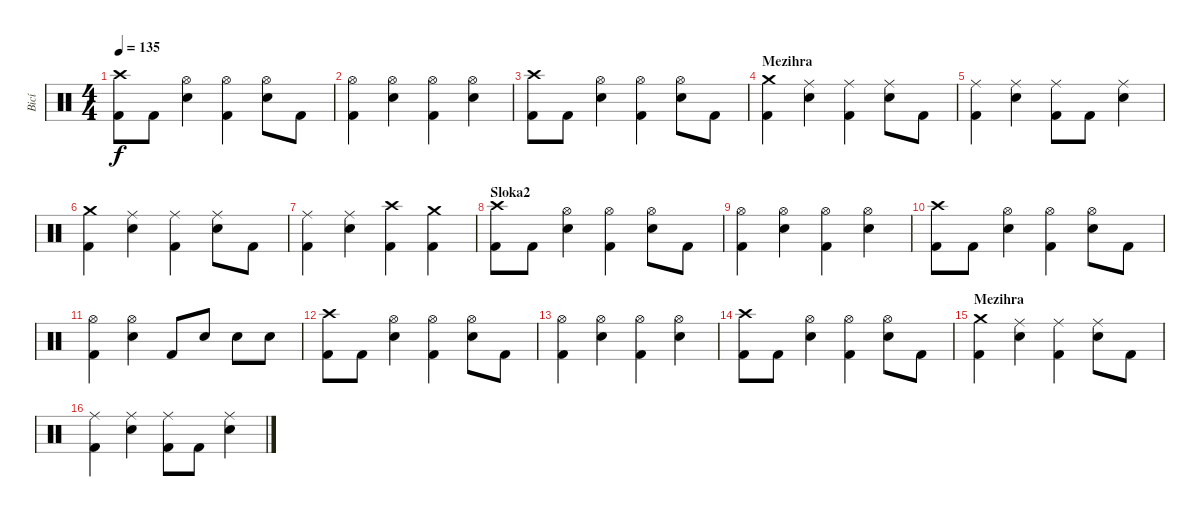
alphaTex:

\track ("Bicí" "Bicí") {instrument percussion}
\staff {score}
\articulation defaults
\ts (4 4)
\tempo 135
\clef neutral
\ks c
("Crash high (hit)" "Kick (hit) 2").8{dy f} "Kick (hit) 2".8 ("Hi-Hat (open)" "Snare (hit) 2").4 ("Hi-Hat (open)" "Kick (hit) 2").4 ("Hi-Hat (open)" "Snare (hit) 2").8 "Kick (hit) 2".8 |
("Hi-Hat (open)" "Kick (hit) 2").4 ("Hi-Hat (open)" "Snare (hit) 2").4 ("Hi-Hat (open)" "Kick (hit) 2").4 ("Hi-Hat (open)" "Snare (hit) 2").4 |
("Crash high (hit)" "Kick (hit) 2").8 "Kick (hit) 2".8 ("Hi-Hat (open)" "Snare (hit) 2").4 ("Hi-Hat (open)" "Kick (hit) 2").4 ("Hi-Hat (open)" "Snare (hit) 2").8 "Kick (hit) 2".8 |
\section ("" "Mezihra")
("Crash medium (hit)" "Kick (hit) 2").4 ("Ride (middle)" "Snare (hit) 2").4 ("Ride (middle)" "Kick (hit) 2").4 ("Ride (middle)" "Snare (hit) 2").8 "Kick (hit) 2".8 |
("Ride (middle)" "Kick (hit) 2").4 ("Ride (middle)" "Snare (hit) 2").4 ("Ride (middle)" "Kick (hit) 2").8 "Kick (hit) 2".8 ("Ride (middle)" "Snare (hit) 2").4 |
("Crash medium (hit)" "Kick (hit) 2").4 ("Ride (middle)" "Snare (hit) 2").4 ("Ride (middle)" "Kick (hit) 2").4 ("Ride (middle)" "Snare (hit) 2").8 "Kick (hit) 2".8 |
("Ride (middle)" "Kick (hit) 2").4 ("Ride (middle)" "Snare (hit) 2").4 ("Crash high (hit)" "Kick (hit) 2").4 ("Crash medium (hit)" "Kick (hit) 2").4 |
\section ("" "Sloka2")
("Crash high (hit)" "Kick (hit) 2").8 "Kick (hit) 2".8 ("Hi-Hat (open)" "Snare (hit) 2").4 ("Hi-Hat (open)" "Kick (hit) 2").4 ("Hi-Hat (open)" "Snare (hit) 2").8 "Kick (hit) 2".8 |
("Hi-Hat (open)" "Kick (hit) 2").4 ("Hi-Hat (open)" "Snare (hit) 2").4 ("Hi-Hat (open)" "Kick (hit) 2").4 ("Hi-Hat (open)" "Snare (hit) 2").4 |
("Crash high (hit)" "Kick (hit) 2").8 "Kick (hit) 2".8 ("Hi-Hat (open)" "Snare (hit) 2").4 ("Hi-Hat (open)" "Kick (hit) 2").4 ("Hi-Hat (open)" "Snare (hit) 2").8 "Kick (hit) 2".8 |
("Hi-Hat (open)" "Kick (hit) 2").4 ("Hi-Hat (open)" "Snare (hit) 2").4 "Kick (hit) 2".8 "Snare (hit) 2".8 "Snare (hit) 2".8 "Snare (hit) 2".8 |
("Crash high (hit)" "Kick (hit) 2").8 "Kick (hit) 2".8 ("Hi-Hat (open)" "Snare (hit) 2").4 ("Hi-Hat (open)" "Kick (hit) 2").4 ("Hi-Hat (open)" "Snare (hit) 2").8 "Kick (hit) 2".8 |
("Hi-Hat (open)" "Kick (hit) 2").4 ("Hi-Hat (open)" "Snare (hit) 2").4 ("Hi-Hat (open)" "Kick (hit) 2").4 ("Hi-Hat (open)" "Snare (hit) 2").4 |
("Crash high (hit)" "Kick (hit) 2").8 "Kick (hit) 2".8 ("Hi-Hat (open)" "Snare (hit) 2").4 ("Hi-Hat (open)" "Kick (hit) 2").4 ("Hi-Hat (open)" "Snare (hit) 2").8 "Kick (hit) 2".8 |
\section ("" "Mezihra")
("Crash medium (hit)" "Kick (hit) 2").4 ("Ride (middle)" "Snare (hit) 2").4 ("Ride (middle)" "Kick (hit) 2").4 ("Ride (middle)" "Snare (hit) 2").8 "Kick (hit) 2".8 |
("Ride (middle)" "Kick (hit) 2").4 ("Ride (middle)" "Snare (hit) 2").4 ("Ride (middle)" "Kick (hit) 2").8 "Kick (hit) 2".8 ("Ride (middle)" "Snare (hit) 2").4
